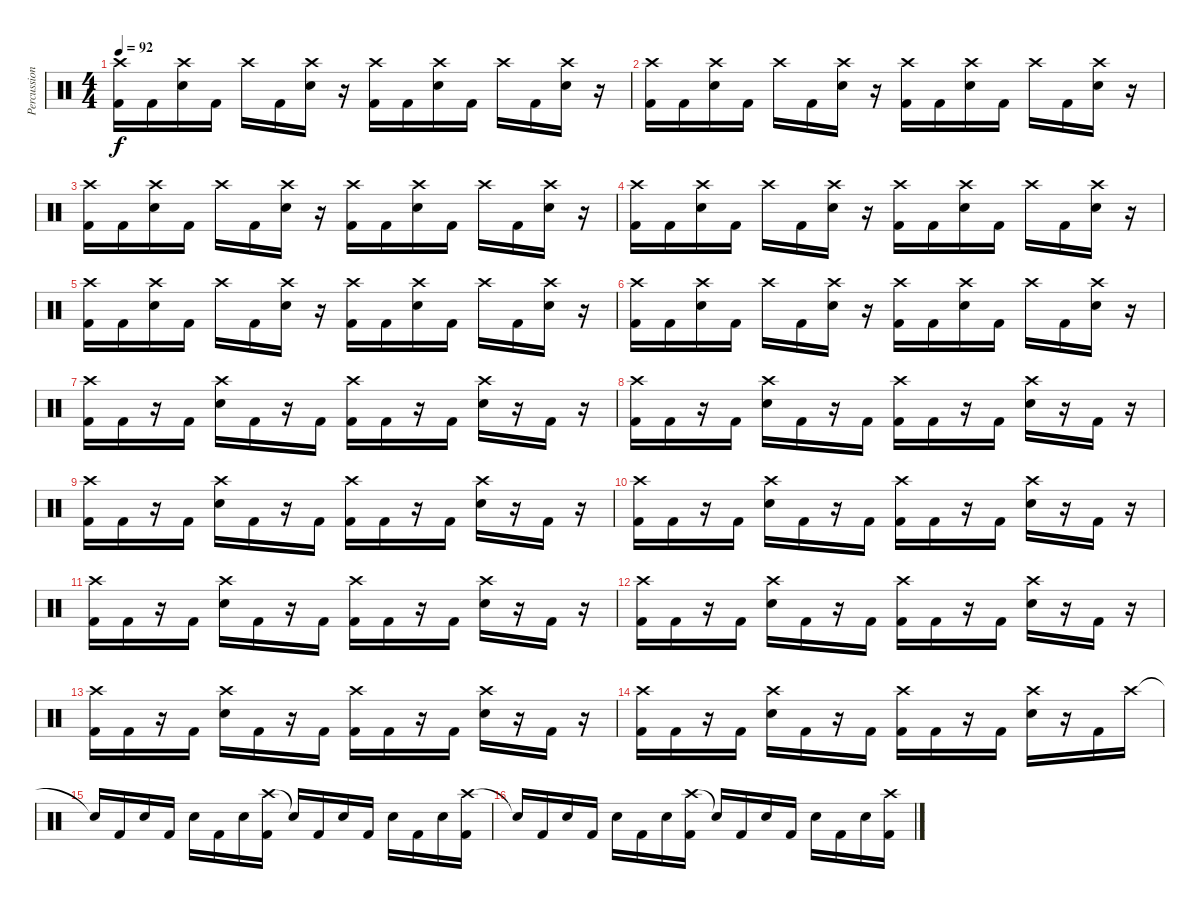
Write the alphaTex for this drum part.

\track ("Percussion" "Percussion") {instrument percussion}
\staff {score}
\articulation defaults
\ts (4 4)
\tempo 92
\clef neutral
\ks c
("Crash high (hit)" "Kick (hit) 2").16{dy f} "Kick (hit) 2".16 ("Crash high (hit)" "Snare (hit) 2").16 "Kick (hit) 2".16 "Crash high (hit)".16 "Kick (hit) 2".16 ("Crash high (hit)" "Snare (hit) 2").16 r.16 ("Crash high (hit)" "Kick (hit) 2").16 "Kick (hit) 2".16 ("Crash high (hit)" "Snare (hit) 2").16 "Kick (hit) 2".16 "Crash high (hit)".16 "Kick (hit) 2".16 ("Crash high (hit)" "Snare (hit) 2").16 r.16 |
("Crash high (hit)" "Kick (hit) 2").16 "Kick (hit) 2".16 ("Crash high (hit)" "Snare (hit) 2").16 "Kick (hit) 2".16 "Crash high (hit)".16 "Kick (hit) 2".16 ("Crash high (hit)" "Snare (hit) 2").16 r.16 ("Crash high (hit)" "Kick (hit) 2").16 "Kick (hit) 2".16 ("Crash high (hit)" "Snare (hit) 2").16 "Kick (hit) 2".16 "Crash high (hit)".16 "Kick (hit) 2".16 ("Crash high (hit)" "Snare (hit) 2").16 r.16 |
("Crash high (hit)" "Kick (hit) 2").16 "Kick (hit) 2".16 ("Crash high (hit)" "Snare (hit) 2").16 "Kick (hit) 2".16 "Crash high (hit)".16 "Kick (hit) 2".16 ("Crash high (hit)" "Snare (hit) 2").16 r.16 ("Crash high (hit)" "Kick (hit) 2").16 "Kick (hit) 2".16 ("Crash high (hit)" "Snare (hit) 2").16 "Kick (hit) 2".16 "Crash high (hit)".16 "Kick (hit) 2".16 ("Crash high (hit)" "Snare (hit) 2").16 r.16 |
("Crash high (hit)" "Kick (hit) 2").16 "Kick (hit) 2".16 ("Crash high (hit)" "Snare (hit) 2").16 "Kick (hit) 2".16 "Crash high (hit)".16 "Kick (hit) 2".16 ("Crash high (hit)" "Snare (hit) 2").16 r.16 ("Crash high (hit)" "Kick (hit) 2").16 "Kick (hit) 2".16 ("Crash high (hit)" "Snare (hit) 2").16 "Kick (hit) 2".16 "Crash high (hit)".16 "Kick (hit) 2".16 ("Crash high (hit)" "Snare (hit) 2").16 r.16 |
("Crash high (hit)" "Kick (hit) 2").16 "Kick (hit) 2".16 ("Crash high (hit)" "Snare (hit) 2").16 "Kick (hit) 2".16 "Crash high (hit)".16 "Kick (hit) 2".16 ("Crash high (hit)" "Snare (hit) 2").16 r.16 ("Crash high (hit)" "Kick (hit) 2").16 "Kick (hit) 2".16 ("Crash high (hit)" "Snare (hit) 2").16 "Kick (hit) 2".16 "Crash high (hit)".16 "Kick (hit) 2".16 ("Crash high (hit)" "Snare (hit) 2").16 r.16 |
("Crash high (hit)" "Kick (hit) 2").16 "Kick (hit) 2".16 ("Crash high (hit)" "Snare (hit) 2").16 "Kick (hit) 2".16 "Crash high (hit)".16 "Kick (hit) 2".16 ("Crash high (hit)" "Snare (hit) 2").16 r.16 ("Crash high (hit)" "Kick (hit) 2").16 "Kick (hit) 2".16 ("Crash high (hit)" "Snare (hit) 2").16 "Kick (hit) 2".16 "Crash high (hit)".16 "Kick (hit) 2".16 ("Crash high (hit)" "Snare (hit) 2").16 r.16 |
("Crash high (hit)" "Kick (hit) 2").16 "Kick (hit) 2".16 r.16 "Kick (hit) 2".16 ("Crash high (hit)" "Snare (hit) 2").16 "Kick (hit) 2".16 r.16 "Kick (hit) 2".16 ("Crash high (hit)" "Kick (hit) 2").16 "Kick (hit) 2".16 r.16 "Kick (hit) 2".16 ("Crash high (hit)" "Snare (hit) 2").16 r.16 "Kick (hit) 2".16 r.16 |
("Crash high (hit)" "Kick (hit) 2").16 "Kick (hit) 2".16 r.16 "Kick (hit) 2".16 ("Crash high (hit)" "Snare (hit) 2").16 "Kick (hit) 2".16 r.16 "Kick (hit) 2".16 ("Crash high (hit)" "Kick (hit) 2").16 "Kick (hit) 2".16 r.16 "Kick (hit) 2".16 ("Crash high (hit)" "Snare (hit) 2").16 r.16 "Kick (hit) 2".16 r.16 |
("Crash high (hit)" "Kick (hit) 2").16 "Kick (hit) 2".16 r.16 "Kick (hit) 2".16 ("Crash high (hit)" "Snare (hit) 2").16 "Kick (hit) 2".16 r.16 "Kick (hit) 2".16 ("Crash high (hit)" "Kick (hit) 2").16 "Kick (hit) 2".16 r.16 "Kick (hit) 2".16 ("Crash high (hit)" "Snare (hit) 2").16 r.16 "Kick (hit) 2".16 r.16 |
("Crash high (hit)" "Kick (hit) 2").16 "Kick (hit) 2".16 r.16 "Kick (hit) 2".16 ("Crash high (hit)" "Snare (hit) 2").16 "Kick (hit) 2".16 r.16 "Kick (hit) 2".16 ("Crash high (hit)" "Kick (hit) 2").16 "Kick (hit) 2".16 r.16 "Kick (hit) 2".16 ("Crash high (hit)" "Snare (hit) 2").16 r.16 "Kick (hit) 2".16 r.16 |
("Crash high (hit)" "Kick (hit) 2").16 "Kick (hit) 2".16 r.16 "Kick (hit) 2".16 ("Crash high (hit)" "Snare (hit) 2").16 "Kick (hit) 2".16 r.16 "Kick (hit) 2".16 ("Crash high (hit)" "Kick (hit) 2").16 "Kick (hit) 2".16 r.16 "Kick (hit) 2".16 ("Crash high (hit)" "Snare (hit) 2").16 r.16 "Kick (hit) 2".16 r.16 |
("Crash high (hit)" "Kick (hit) 2").16 "Kick (hit) 2".16 r.16 "Kick (hit) 2".16 ("Crash high (hit)" "Snare (hit) 2").16 "Kick (hit) 2".16 r.16 "Kick (hit) 2".16 ("Crash high (hit)" "Kick (hit) 2").16 "Kick (hit) 2".16 r.16 "Kick (hit) 2".16 ("Crash high (hit)" "Snare (hit) 2").16 r.16 "Kick (hit) 2".16 r.16 |
("Crash high (hit)" "Kick (hit) 2").16 "Kick (hit) 2".16 r.16 "Kick (hit) 2".16 ("Crash high (hit)" "Snare (hit) 2").16 "Kick (hit) 2".16 r.16 "Kick (hit) 2".16 ("Crash high (hit)" "Kick (hit) 2").16 "Kick (hit) 2".16 r.16 "Kick (hit) 2".16 ("Crash high (hit)" "Snare (hit) 2").16 r.16 "Kick (hit) 2".16 r.16 |
("Crash high (hit)" "Kick (hit) 2").16 "Kick (hit) 2".16 r.16 "Kick (hit) 2".16 ("Crash high (hit)" "Snare (hit) 2").16 "Kick (hit) 2".16 r.16 "Kick (hit) 2".16 ("Crash high (hit)" "Kick (hit) 2").16 "Kick (hit) 2".16 r.16 "Kick (hit) 2".16 ("Crash high (hit)" "Snare (hit) 2").16 r.16 "Kick (hit) 2".16 "Crash high (hit)".16 |
"Snare (hit)"{t}.16 "Kick (hit) 2".16 "Snare (hit) 2".16 "Kick (hit) 2".16 "Snare (hit) 2".16 "Kick (hit) 2".16 "Snare (hit) 2".16 ("Crash high (hit)" "Kick (hit) 2").16 "Snare (hit)"{t}.16 "Kick (hit) 2".16 "Snare (hit) 2".16 "Kick (hit) 2".16 "Snare (hit) 2".16 "Kick (hit) 2".16 "Snare (hit) 2".16 ("Crash high (hit)" "Kick (hit) 2").16 |
"Snare (hit)"{t}.16 "Kick (hit) 2".16 "Snare (hit) 2".16 "Kick (hit) 2".16 "Snare (hit) 2".16 "Kick (hit) 2".16 "Snare (hit) 2".16 ("Crash high (hit)" "Kick (hit) 2").16 "Snare (hit)"{t}.16 "Kick (hit) 2".16 "Snare (hit) 2".16 "Kick (hit) 2".16 "Snare (hit) 2".16 "Kick (hit) 2".16 "Snare (hit) 2".16 ("Crash high (hit)" "Kick (hit) 2").16
